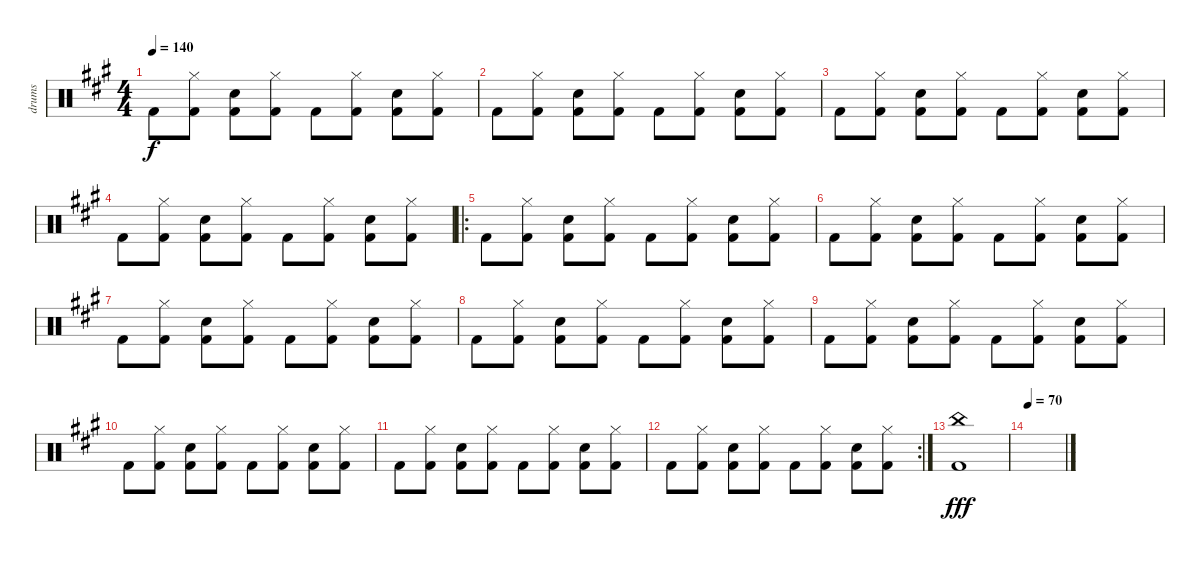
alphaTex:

\track ("drums" "drums") {instrument percussion}
\staff {score}
\articulation defaults
\ts (4 4)
\tempo 140
\clef neutral
\ks f#minor "Kick (hit) 2".8{dy f}
("Hi-Hat (closed)" "Kick (hit) 2").8 ("Electric Snare (hit)" "Kick (hit) 2").8 ("Hi-Hat (closed)" "Kick (hit) 2").8 "Kick (hit) 2".8 ("Hi-Hat (closed)" "Kick (hit) 2").8 ("Electric Snare (hit)" "Kick (hit) 2").8 ("Hi-Hat (closed)" "Kick (hit) 2").8 |
"Kick (hit) 2".8 ("Hi-Hat (closed)" "Kick (hit) 2").8 ("Electric Snare (hit)" "Kick (hit) 2").8 ("Hi-Hat (closed)" "Kick (hit) 2").8 "Kick (hit) 2".8 ("Hi-Hat (closed)" "Kick (hit) 2").8 ("Electric Snare (hit)" "Kick (hit) 2").8 ("Hi-Hat (closed)" "Kick (hit) 2").8 |
"Kick (hit) 2".8 ("Hi-Hat (closed)" "Kick (hit) 2").8 ("Electric Snare (hit)" "Kick (hit) 2").8 ("Hi-Hat (closed)" "Kick (hit) 2").8 "Kick (hit) 2".8 ("Hi-Hat (closed)" "Kick (hit) 2").8 ("Electric Snare (hit)" "Kick (hit) 2").8 ("Hi-Hat (closed)" "Kick (hit) 2").8 |
"Kick (hit) 2".8 ("Hi-Hat (closed)" "Kick (hit) 2").8 ("Electric Snare (hit)" "Kick (hit) 2").8 ("Hi-Hat (closed)" "Kick (hit) 2").8 "Kick (hit) 2".8 ("Hi-Hat (closed)" "Kick (hit) 2").8 ("Electric Snare (hit)" "Kick (hit) 2").8 ("Hi-Hat (closed)" "Kick (hit) 2").8 |
\ro "Kick (hit) 2".8
("Hi-Hat (closed)" "Kick (hit) 2").8 ("Electric Snare (hit)" "Kick (hit) 2").8 ("Hi-Hat (closed)" "Kick (hit) 2").8 "Kick (hit) 2".8 ("Hi-Hat (closed)" "Kick (hit) 2").8 ("Electric Snare (hit)" "Kick (hit) 2").8 ("Hi-Hat (closed)" "Kick (hit) 2").8 |
"Kick (hit) 2".8 ("Hi-Hat (closed)" "Kick (hit) 2").8 ("Electric Snare (hit)" "Kick (hit) 2").8 ("Hi-Hat (closed)" "Kick (hit) 2").8 "Kick (hit) 2".8 ("Hi-Hat (closed)" "Kick (hit) 2").8 ("Electric Snare (hit)" "Kick (hit) 2").8 ("Hi-Hat (closed)" "Kick (hit) 2").8 |
"Kick (hit) 2".8 ("Hi-Hat (closed)" "Kick (hit) 2").8 ("Electric Snare (hit)" "Kick (hit) 2").8 ("Hi-Hat (closed)" "Kick (hit) 2").8 "Kick (hit) 2".8 ("Hi-Hat (closed)" "Kick (hit) 2").8 ("Electric Snare (hit)" "Kick (hit) 2").8 ("Hi-Hat (closed)" "Kick (hit) 2").8 |
"Kick (hit) 2".8 ("Hi-Hat (closed)" "Kick (hit) 2").8 ("Electric Snare (hit)" "Kick (hit) 2").8 ("Hi-Hat (closed)" "Kick (hit) 2").8 "Kick (hit) 2".8 ("Hi-Hat (closed)" "Kick (hit) 2").8 ("Electric Snare (hit)" "Kick (hit) 2").8 ("Hi-Hat (closed)" "Kick (hit) 2").8 |
"Kick (hit) 2".8 ("Hi-Hat (closed)" "Kick (hit) 2").8 ("Electric Snare (hit)" "Kick (hit) 2").8 ("Hi-Hat (closed)" "Kick (hit) 2").8 "Kick (hit) 2".8 ("Hi-Hat (closed)" "Kick (hit) 2").8 ("Electric Snare (hit)" "Kick (hit) 2").8 ("Hi-Hat (closed)" "Kick (hit) 2").8 |
"Kick (hit) 2".8 ("Hi-Hat (closed)" "Kick (hit) 2").8 ("Electric Snare (hit)" "Kick (hit) 2").8 ("Hi-Hat (closed)" "Kick (hit) 2").8 "Kick (hit) 2".8 ("Hi-Hat (closed)" "Kick (hit) 2").8 ("Electric Snare (hit)" "Kick (hit) 2").8 ("Hi-Hat (closed)" "Kick (hit) 2").8 |
"Kick (hit) 2".8 ("Hi-Hat (closed)" "Kick (hit) 2").8 ("Electric Snare (hit)" "Kick (hit) 2").8 ("Hi-Hat (closed)" "Kick (hit) 2").8 "Kick (hit) 2".8 ("Hi-Hat (closed)" "Kick (hit) 2").8 ("Electric Snare (hit)" "Kick (hit) 2").8 ("Hi-Hat (closed)" "Kick (hit) 2").8 |
\rc 2 "Kick (hit) 2".8
("Hi-Hat (closed)" "Kick (hit) 2").8 ("Electric Snare (hit)" "Kick (hit) 2").8 ("Hi-Hat (closed)" "Kick (hit) 2").8 "Kick (hit) 2".8 ("Hi-Hat (closed)" "Kick (hit) 2").8 ("Electric Snare (hit)" "Kick (hit) 2").8 ("Hi-Hat (closed)" "Kick (hit) 2").8 |
("China (hit)" "Kick (hit) 2").1{dy fff} |
\tempo 70
